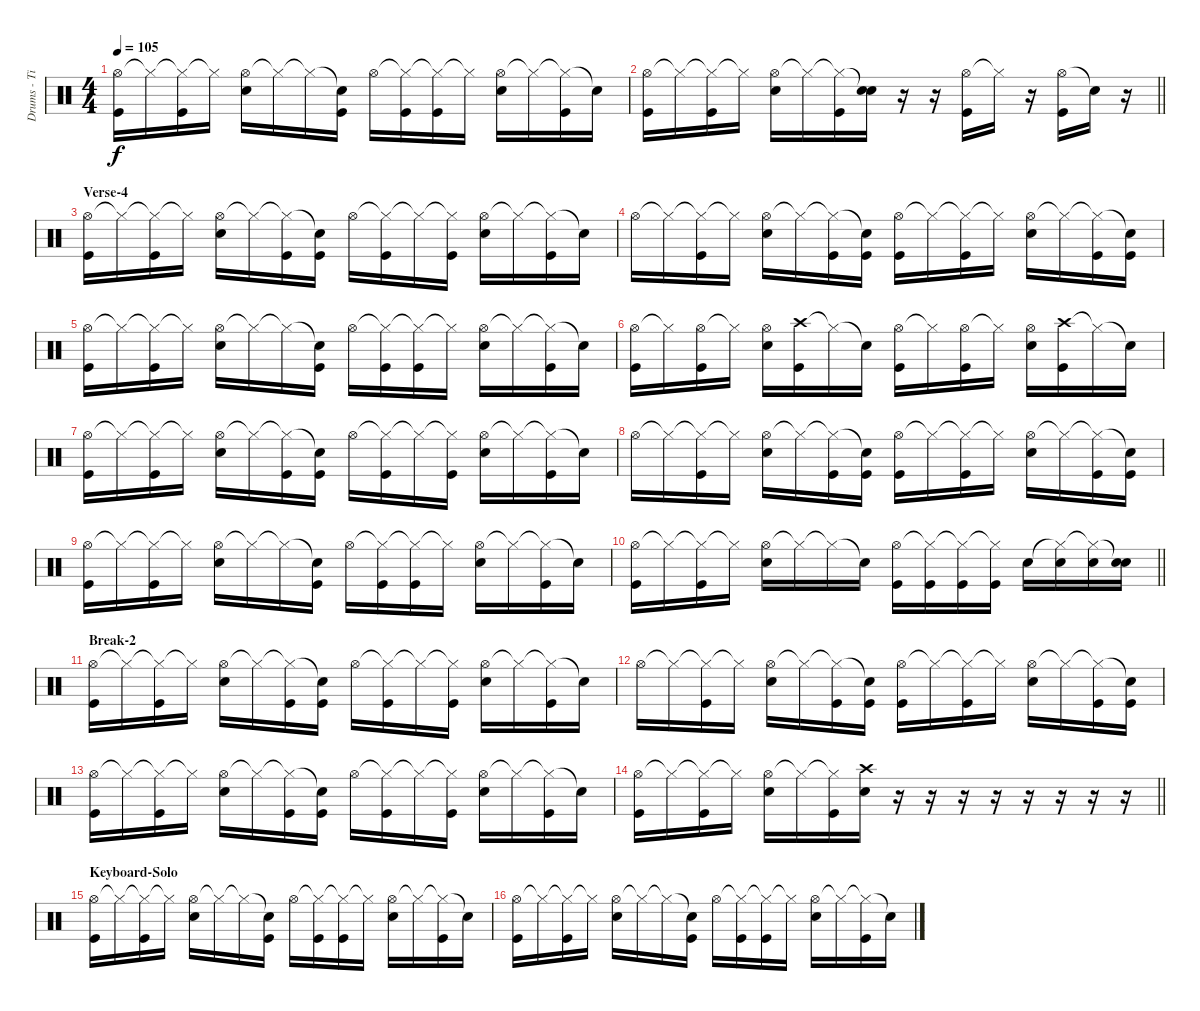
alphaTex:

\track ("Drums - Tipu" "Drums - Ti") {instrument percussion}
\staff {score}
\articulation defaults
\ts (4 4)
\tempo 105
\clef neutral
\ks c
("Hi-Hat (open)" "Kick (hit)").16{dy f} "Hi-Hat (closed)"{t}.16 ("Hi-Hat (closed)"{t} "Kick (hit)").16 "Hi-Hat (closed)"{t}.16 ("Hi-Hat (open)" "Electric Snare (hit)").16 "Hi-Hat (closed)"{t}.16 "Hi-Hat (closed)"{t}.16 ("Snare (hit)"{t} "Kick (hit)").16 "Hi-Hat (open)".16 ("Hi-Hat (closed)"{t} "Kick (hit)").16 ("Hi-Hat (closed)"{t} "Kick (hit)").16 "Hi-Hat (closed)"{t}.16 ("Hi-Hat (open)" "Electric Snare (hit)").16 "Hi-Hat (closed)"{t}.16 ("Hi-Hat (closed)"{t} "Kick (hit)").16 "Snare (hit)"{t}.16 |
\barLineRight lightlight
("Hi-Hat (open)" "Kick (hit)").16 "Hi-Hat (closed)"{t}.16 ("Hi-Hat (closed)"{t} "Kick (hit)").16 "Hi-Hat (closed)"{t}.16 ("Hi-Hat (open)" "Electric Snare (hit)").16 "Hi-Hat (closed)"{t}.16 ("Hi-Hat (closed)"{t} "Kick (hit)").16 ("Snare (hit)"{t} "Electric Snare (hit)").16 r.16 r.16 ("Hi-Hat (open)" "Kick (hit)").16 "Hi-Hat (closed)"{t}.16 r.16 ("Hi-Hat (open)" "Kick (hit)").16 "Snare (hit)"{t}.16 r.16 |
\section ("" "Verse-4")
("Hi-Hat (open)" "Kick (hit)").16 "Hi-Hat (closed)"{t}.16 ("Hi-Hat (closed)"{t} "Kick (hit)").16 "Hi-Hat (closed)"{t}.16 ("Hi-Hat (open)" "Electric Snare (hit)").16 "Hi-Hat (closed)"{t}.16 ("Hi-Hat (closed)"{t} "Kick (hit)").16 ("Snare (hit)"{t} "Kick (hit)").16 "Hi-Hat (open)".16 ("Hi-Hat (closed)"{t} "Kick (hit)").16 "Hi-Hat (closed)"{t}.16 ("Hi-Hat (closed)"{t} "Kick (hit)").16 ("Hi-Hat (open)" "Electric Snare (hit)").16 "Hi-Hat (closed)"{t}.16 ("Hi-Hat (closed)"{t} "Kick (hit)").16 "Snare (hit)"{t}.16 |
"Hi-Hat (open)".16 "Hi-Hat (closed)"{t}.16 ("Hi-Hat (closed)"{t} "Kick (hit)").16 "Hi-Hat (closed)"{t}.16 ("Hi-Hat (open)" "Electric Snare (hit)").16 "Hi-Hat (closed)"{t}.16 ("Hi-Hat (closed)"{t} "Kick (hit)").16 ("Snare (hit)"{t} "Kick (hit)").16 ("Hi-Hat (open)" "Kick (hit)").16 "Hi-Hat (closed)"{t}.16 ("Hi-Hat (closed)"{t} "Kick (hit)").16 "Hi-Hat (closed)"{t}.16 ("Hi-Hat (open)" "Electric Snare (hit)").16 "Hi-Hat (closed)"{t}.16 ("Hi-Hat (closed)"{t} "Kick (hit)").16 ("Snare (hit)"{t} "Kick (hit)").16 |
("Hi-Hat (open)" "Kick (hit)").16 "Hi-Hat (closed)"{t}.16 ("Hi-Hat (closed)"{t} "Kick (hit)").16 "Hi-Hat (closed)"{t}.16 ("Hi-Hat (open)" "Electric Snare (hit)").16 "Hi-Hat (closed)"{t}.16 "Hi-Hat (closed)"{t}.16 ("Snare (hit)"{t} "Kick (hit)").16 "Hi-Hat (open)".16 ("Hi-Hat (closed)"{t} "Kick (hit)").16 ("Hi-Hat (closed)"{t} "Kick (hit)").16 "Hi-Hat (closed)"{t}.16 ("Hi-Hat (open)" "Electric Snare (hit)").16 "Hi-Hat (closed)"{t}.16 ("Hi-Hat (closed)"{t} "Kick (hit)").16 "Snare (hit)"{t}.16 |
("Hi-Hat (open)" "Kick (hit)").16 "Hi-Hat (closed)"{t}.16 ("Hi-Hat (open)" "Kick (hit)").16 "Hi-Hat (closed)"{t}.16 ("Hi-Hat (open)" "Electric Snare (hit)").16 ("Crash high (hit)" "Kick (hit)").16 "Hi-Hat (closed)"{t}.16 "Snare (hit)"{t}.16 ("Hi-Hat (open)" "Kick (hit)").16 "Hi-Hat (closed)"{t}.16 ("Hi-Hat (open)" "Kick (hit)").16 "Hi-Hat (closed)"{t}.16 ("Hi-Hat (open)" "Electric Snare (hit)").16 ("Crash high (hit)" "Kick (hit)").16 "Hi-Hat (closed)"{t}.16 "Snare (hit)"{t}.16 |
("Hi-Hat (open)" "Kick (hit)").16 "Hi-Hat (closed)"{t}.16 ("Hi-Hat (closed)"{t} "Kick (hit)").16 "Hi-Hat (closed)"{t}.16 ("Hi-Hat (open)" "Electric Snare (hit)").16 "Hi-Hat (closed)"{t}.16 ("Hi-Hat (closed)"{t} "Kick (hit)").16 ("Snare (hit)"{t} "Kick (hit)").16 "Hi-Hat (open)".16 ("Hi-Hat (closed)"{t} "Kick (hit)").16 "Hi-Hat (closed)"{t}.16 ("Hi-Hat (closed)"{t} "Kick (hit)").16 ("Hi-Hat (open)" "Electric Snare (hit)").16 "Hi-Hat (closed)"{t}.16 ("Hi-Hat (closed)"{t} "Kick (hit)").16 "Snare (hit)"{t}.16 |
"Hi-Hat (open)".16 "Hi-Hat (closed)"{t}.16 ("Hi-Hat (closed)"{t} "Kick (hit)").16 "Hi-Hat (closed)"{t}.16 ("Hi-Hat (open)" "Electric Snare (hit)").16 "Hi-Hat (closed)"{t}.16 ("Hi-Hat (closed)"{t} "Kick (hit)").16 ("Snare (hit)"{t} "Kick (hit)").16 ("Hi-Hat (open)" "Kick (hit)").16 "Hi-Hat (closed)"{t}.16 ("Hi-Hat (closed)"{t} "Kick (hit)").16 "Hi-Hat (closed)"{t}.16 ("Hi-Hat (open)" "Electric Snare (hit)").16 "Hi-Hat (closed)"{t}.16 ("Hi-Hat (closed)"{t} "Kick (hit)").16 ("Snare (hit)"{t} "Kick (hit)").16 |
("Hi-Hat (open)" "Kick (hit)").16 "Hi-Hat (closed)"{t}.16 ("Hi-Hat (closed)"{t} "Kick (hit)").16 "Hi-Hat (closed)"{t}.16 ("Hi-Hat (open)" "Electric Snare (hit)").16 "Hi-Hat (closed)"{t}.16 "Hi-Hat (closed)"{t}.16 ("Snare (hit)"{t} "Kick (hit)").16 "Hi-Hat (open)".16 ("Hi-Hat (closed)"{t} "Kick (hit)").16 ("Hi-Hat (closed)"{t} "Kick (hit)").16 "Hi-Hat (closed)"{t}.16 ("Hi-Hat (open)" "Electric Snare (hit)").16 "Hi-Hat (closed)"{t}.16 ("Hi-Hat (closed)"{t} "Kick (hit)").16 "Snare (hit)"{t}.16 |
\barLineRight lightlight
("Hi-Hat (open)" "Kick (hit)").16 "Hi-Hat (closed)"{t}.16 ("Hi-Hat (closed)"{t} "Kick (hit)").16 "Hi-Hat (closed)"{t}.16 ("Hi-Hat (open)" "Electric Snare (hit)").16 "Hi-Hat (closed)"{t}.16 "Hi-Hat (closed)"{t}.16 "Snare (hit)"{t}.16 ("Hi-Hat (open)" "Kick (hit)").16 ("Hi-Hat (closed)"{t} "Kick (hit)").16 ("Hi-Hat (closed)"{t} "Kick (hit)").16 ("Hi-Hat (closed)"{t} "Kick (hit)").16 "Electric Snare (hit)".16 ("Hi-Hat (closed)"{t} "Electric Snare (hit)").16 ("Hi-Hat (closed)"{t} "Electric Snare (hit)").16 ("Snare (hit)"{t} "Electric Snare (hit)").16 |
\section ("" "Break-2")
("Hi-Hat (open)" "Kick (hit)").16 "Hi-Hat (closed)"{t}.16 ("Hi-Hat (closed)"{t} "Kick (hit)").16 "Hi-Hat (closed)"{t}.16 ("Hi-Hat (open)" "Electric Snare (hit)").16 "Hi-Hat (closed)"{t}.16 ("Hi-Hat (closed)"{t} "Kick (hit)").16 ("Snare (hit)"{t} "Kick (hit)").16 "Hi-Hat (open)".16 ("Hi-Hat (closed)"{t} "Kick (hit)").16 "Hi-Hat (closed)"{t}.16 ("Hi-Hat (closed)"{t} "Kick (hit)").16 ("Hi-Hat (open)" "Electric Snare (hit)").16 "Hi-Hat (closed)"{t}.16 ("Hi-Hat (closed)"{t} "Kick (hit)").16 "Snare (hit)"{t}.16 |
"Hi-Hat (open)".16 "Hi-Hat (closed)"{t}.16 ("Hi-Hat (closed)"{t} "Kick (hit)").16 "Hi-Hat (closed)"{t}.16 ("Hi-Hat (open)" "Electric Snare (hit)").16 "Hi-Hat (closed)"{t}.16 ("Hi-Hat (closed)"{t} "Kick (hit)").16 ("Snare (hit)"{t} "Kick (hit)").16 ("Hi-Hat (open)" "Kick (hit)").16 "Hi-Hat (closed)"{t}.16 ("Hi-Hat (closed)"{t} "Kick (hit)").16 "Hi-Hat (closed)"{t}.16 ("Hi-Hat (open)" "Electric Snare (hit)").16 "Hi-Hat (closed)"{t}.16 ("Hi-Hat (closed)"{t} "Kick (hit)").16 ("Snare (hit)"{t} "Kick (hit)").16 |
("Hi-Hat (open)" "Kick (hit)").16 "Hi-Hat (closed)"{t}.16 ("Hi-Hat (closed)"{t} "Kick (hit)").16 "Hi-Hat (closed)"{t}.16 ("Hi-Hat (open)" "Electric Snare (hit)").16 "Hi-Hat (closed)"{t}.16 ("Hi-Hat (closed)"{t} "Kick (hit)").16 ("Snare (hit)"{t} "Kick (hit)").16 "Hi-Hat (open)".16 ("Hi-Hat (closed)"{t} "Kick (hit)").16 "Hi-Hat (closed)"{t}.16 ("Hi-Hat (closed)"{t} "Kick (hit)").16 ("Hi-Hat (open)" "Electric Snare (hit)").16 "Hi-Hat (closed)"{t}.16 ("Hi-Hat (closed)"{t} "Kick (hit)").16 "Snare (hit)"{t}.16 |
\barLineRight lightlight
("Hi-Hat (open)" "Kick (hit)").16 "Hi-Hat (closed)"{t}.16 ("Hi-Hat (closed)"{t} "Kick (hit)").16 "Hi-Hat (closed)"{t}.16 ("Hi-Hat (open)" "Electric Snare (hit)").16 "Hi-Hat (closed)"{t}.16 ("Hi-Hat (closed)"{t} "Kick (hit)").16 ("Crash high (hit)" "Electric Snare (hit)").16 r.16 r.16 r.16 r.16 r.16 r.16 r.16 r.16 |
\section ("" "Keyboard-Solo")
("Hi-Hat (open)" "Kick (hit)").16 "Hi-Hat (closed)"{t}.16 ("Hi-Hat (closed)"{t} "Kick (hit)").16 "Hi-Hat (closed)"{t}.16 ("Hi-Hat (open)" "Electric Snare (hit)").16 "Hi-Hat (closed)"{t}.16 "Hi-Hat (closed)"{t}.16 ("Snare (hit)"{t} "Kick (hit)").16 "Hi-Hat (open)".16 ("Hi-Hat (closed)"{t} "Kick (hit)").16 ("Hi-Hat (closed)"{t} "Kick (hit)").16 "Hi-Hat (closed)"{t}.16 ("Hi-Hat (open)" "Electric Snare (hit)").16 "Hi-Hat (closed)"{t}.16 ("Hi-Hat (closed)"{t} "Kick (hit)").16 "Snare (hit)"{t}.16 |
("Hi-Hat (open)" "Kick (hit)").16 "Hi-Hat (closed)"{t}.16 ("Hi-Hat (closed)"{t} "Kick (hit)").16 "Hi-Hat (closed)"{t}.16 ("Hi-Hat (open)" "Electric Snare (hit)").16 "Hi-Hat (closed)"{t}.16 "Hi-Hat (closed)"{t}.16 ("Snare (hit)"{t} "Kick (hit)").16 "Hi-Hat (open)".16 ("Hi-Hat (closed)"{t} "Kick (hit)").16 ("Hi-Hat (closed)"{t} "Kick (hit)").16 "Hi-Hat (closed)"{t}.16 ("Hi-Hat (open)" "Electric Snare (hit)").16 "Hi-Hat (closed)"{t}.16 ("Hi-Hat (closed)"{t} "Kick (hit)").16 "Snare (hit)"{t}.16
